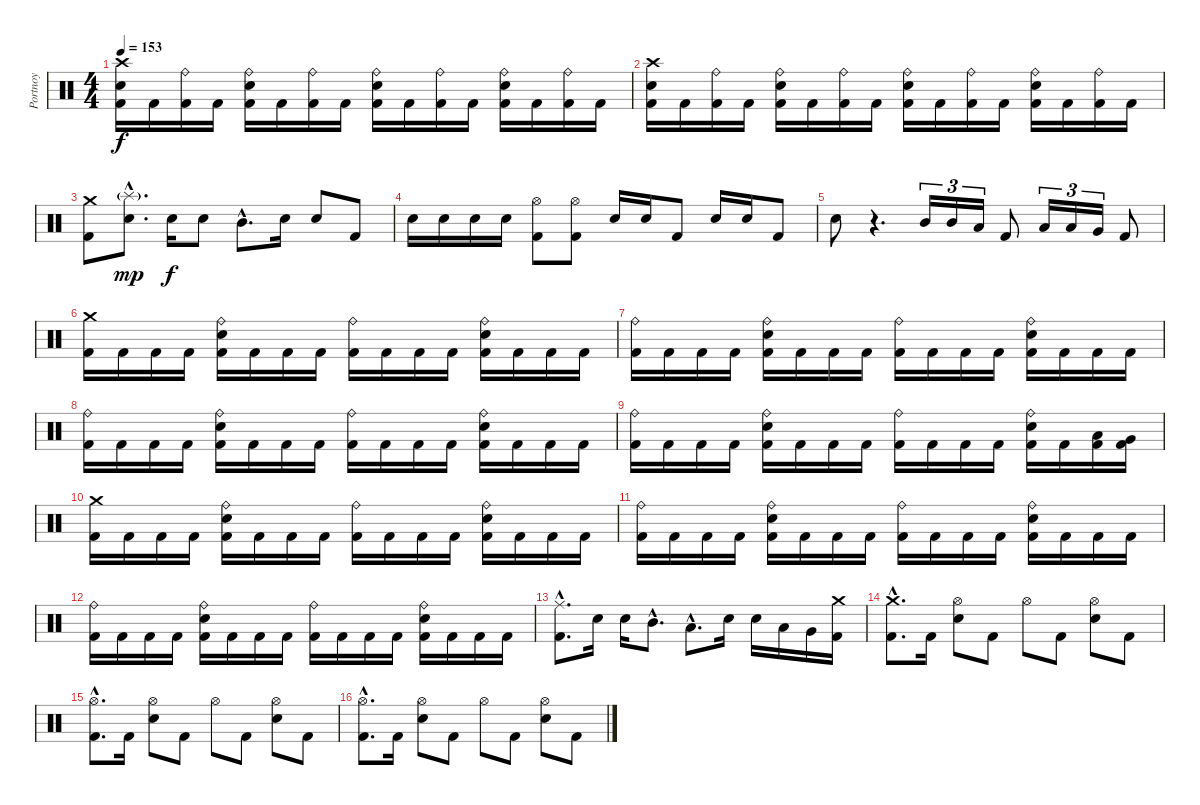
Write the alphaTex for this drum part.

\track ("Portnoy" "Portnoy") {instrument percussion}
\staff {score}
\articulation defaults
\ts (4 4)
\tempo 153
\clef neutral
\ks c
("Kick (hit) 2" "Electric Snare (hit)" "Crash high (hit)").16{dy f} "Kick (hit) 2".16 ("Kick (hit) 2" "Ride (bell)").16 "Kick (hit) 2".16 ("Kick (hit) 2" "Electric Snare (hit)" "Ride (bell)").16 "Kick (hit) 2".16 ("Kick (hit) 2" "Ride (bell)").16 "Kick (hit) 2".16 ("Kick (hit) 2" "Electric Snare (hit)" "Ride (bell)").16 "Kick (hit) 2".16 ("Kick (hit) 2" "Ride (bell)").16 "Kick (hit) 2".16 ("Kick (hit) 2" "Electric Snare (hit)" "Ride (bell)").16 "Kick (hit) 2".16 ("Kick (hit) 2" "Ride (bell)").16 "Kick (hit) 2".16 |
("Kick (hit) 2" "Electric Snare (hit)" "Crash high (hit)").16 "Kick (hit) 2".16 ("Kick (hit) 2" "Ride (bell)").16 "Kick (hit) 2".16 ("Kick (hit) 2" "Electric Snare (hit)" "Ride (bell)").16 "Kick (hit) 2".16 ("Kick (hit) 2" "Ride (bell)").16 "Kick (hit) 2".16 ("Kick (hit) 2" "Electric Snare (hit)" "Ride (bell)").16 "Kick (hit) 2".16 ("Kick (hit) 2" "Ride (bell)").16 "Kick (hit) 2".16 ("Kick (hit) 2" "Electric Snare (hit)" "Ride (bell)").16 "Kick (hit) 2".16 ("Kick (hit) 2" "Ride (bell)").16 "Kick (hit) 2".16 |
("Kick (hit) 2" "Crash medium (hit)").8 ("Electric Snare (hit)"{hac} "Splash (hit)"{g hac}).8{d dy mp} "Electric Snare (hit)".16{dy f} "Electric Snare (hit)".8 "Mid Tom (hit)"{hac}.8{d} "Electric Snare (hit)".16 "Electric Snare (hit)".8 "Kick (hit) 2".8 |
"Electric Snare (hit)".16 "Electric Snare (hit)".16 "Electric Snare (hit)".16 "Electric Snare (hit)".16 ("Kick (hit) 2" "Hi-Hat (open)").8 ("Kick (hit) 2" "Hi-Hat (open)").8 "Electric Snare (hit)".16 "Electric Snare (hit)".16 "Kick (hit) 2".8 "Electric Snare (hit)".16 "Electric Snare (hit)".16 "Kick (hit) 2".8 |
"Electric Snare (hit)".8 r.4{d} "Mid Tom (hit)".16{tu (3 2)} "Mid Tom (hit)".16{tu (3 2)} "Low Tom (hit)".16{tu (3 2)} "Kick (hit) 2".8 "Low Tom (hit)".16{tu (3 2)} "Low Tom (hit)".16{tu (3 2)} "Very Low Tom (hit)".16{tu (3 2)} "Kick (hit) 2".8 |
("Kick (hit) 2" "Crash medium (hit)").16 "Kick (hit) 2".16 "Kick (hit) 2".16 "Kick (hit) 2".16 ("Kick (hit) 2" "Electric Snare (hit)" "Ride (bell)").16 "Kick (hit) 2".16 "Kick (hit) 2".16 "Kick (hit) 2".16 ("Kick (hit) 2" "Ride (bell)").16 "Kick (hit) 2".16 "Kick (hit) 2".16 "Kick (hit) 2".16 ("Kick (hit) 2" "Electric Snare (hit)" "Ride (bell)").16 "Kick (hit) 2".16 "Kick (hit) 2".16 "Kick (hit) 2".16 |
("Kick (hit) 2" "Ride (bell)").16 "Kick (hit) 2".16 "Kick (hit) 2".16 "Kick (hit) 2".16 ("Kick (hit) 2" "Electric Snare (hit)" "Ride (bell)").16 "Kick (hit) 2".16 "Kick (hit) 2".16 "Kick (hit) 2".16 ("Kick (hit) 2" "Ride (bell)").16 "Kick (hit) 2".16 "Kick (hit) 2".16 "Kick (hit) 2".16 ("Kick (hit) 2" "Electric Snare (hit)" "Ride (bell)").16 "Kick (hit) 2".16 "Kick (hit) 2".16 "Kick (hit) 2".16 |
("Kick (hit) 2" "Ride (bell)").16 "Kick (hit) 2".16 "Kick (hit) 2".16 "Kick (hit) 2".16 ("Kick (hit) 2" "Electric Snare (hit)" "Ride (bell)").16 "Kick (hit) 2".16 "Kick (hit) 2".16 "Kick (hit) 2".16 ("Kick (hit) 2" "Ride (bell)").16 "Kick (hit) 2".16 "Kick (hit) 2".16 "Kick (hit) 2".16 ("Kick (hit) 2" "Electric Snare (hit)" "Ride (bell)").16 "Kick (hit) 2".16 "Kick (hit) 2".16 "Kick (hit) 2".16 |
("Kick (hit) 2" "Ride (bell)").16 "Kick (hit) 2".16 "Kick (hit) 2".16 "Kick (hit) 2".16 ("Kick (hit) 2" "Electric Snare (hit)" "Ride (bell)").16 "Kick (hit) 2".16 "Kick (hit) 2".16 "Kick (hit) 2".16 ("Kick (hit) 2" "Ride (bell)").16 "Kick (hit) 2".16 "Kick (hit) 2".16 "Kick (hit) 2".16 ("Kick (hit) 2" "Electric Snare (hit)" "Ride (bell)").16 "Kick (hit) 2".16 ("Kick (hit) 2" "Low Tom (hit)").16 ("Kick (hit) 2" "Very Low Tom (hit)").16 |
("Kick (hit) 2" "Crash medium (hit)").16 "Kick (hit) 2".16 "Kick (hit) 2".16 "Kick (hit) 2".16 ("Kick (hit) 2" "Electric Snare (hit)" "Ride (bell)").16 "Kick (hit) 2".16 "Kick (hit) 2".16 "Kick (hit) 2".16 ("Kick (hit) 2" "Ride (bell)").16 "Kick (hit) 2".16 "Kick (hit) 2".16 "Kick (hit) 2".16 ("Kick (hit) 2" "Electric Snare (hit)" "Ride (bell)").16 "Kick (hit) 2".16 "Kick (hit) 2".16 "Kick (hit) 2".16 |
("Kick (hit) 2" "Ride (bell)").16 "Kick (hit) 2".16 "Kick (hit) 2".16 "Kick (hit) 2".16 ("Kick (hit) 2" "Electric Snare (hit)" "Ride (bell)").16 "Kick (hit) 2".16 "Kick (hit) 2".16 "Kick (hit) 2".16 ("Kick (hit) 2" "Ride (bell)").16 "Kick (hit) 2".16 "Kick (hit) 2".16 "Kick (hit) 2".16 ("Kick (hit) 2" "Electric Snare (hit)" "Ride (bell)").16 "Kick (hit) 2".16 "Kick (hit) 2".16 "Kick (hit) 2".16 |
("Kick (hit) 2" "Ride (bell)").16 "Kick (hit) 2".16 "Kick (hit) 2".16 "Kick (hit) 2".16 ("Kick (hit) 2" "Electric Snare (hit)" "Ride (bell)").16 "Kick (hit) 2".16 "Kick (hit) 2".16 "Kick (hit) 2".16 ("Kick (hit) 2" "Ride (bell)").16 "Kick (hit) 2".16 "Kick (hit) 2".16 "Kick (hit) 2".16 ("Kick (hit) 2" "Electric Snare (hit)" "Ride (bell)").16 "Kick (hit) 2".16 "Kick (hit) 2".16 "Kick (hit) 2".16 |
("Kick (hit) 2"{hac} "Ride (middle)"{hac}).8{d} "Electric Snare (hit)".16 "Electric Snare (hit)".16 "Mid Tom (hit)"{hac}.8{d} "Low Tom (hit)"{hac}.8{d} "Electric Snare (hit)".16 "Electric Snare (hit)".16 "Low Tom (hit)".16 "Very Low Tom (hit)".16 ("Kick (hit) 2" "Crash medium (hit)").16 |
("Kick (hit) 2"{hac} "Crash medium (hit)"{hac}).8{d} "Kick (hit) 2".16 ("Electric Snare (hit)" "Hi-Hat (open)").8 "Kick (hit) 2".8 "Hi-Hat (open)".8 "Kick (hit) 2".8 ("Electric Snare (hit)" "Hi-Hat (open)").8 "Kick (hit) 2".8 |
("Kick (hit) 2"{hac} "Hi-Hat (open)"{hac}).8{d} "Kick (hit) 2".16 ("Electric Snare (hit)" "Hi-Hat (open)").8 "Kick (hit) 2".8 "Hi-Hat (open)".8 "Kick (hit) 2".8 ("Electric Snare (hit)" "Hi-Hat (open)").8 "Kick (hit) 2".8 |
("Kick (hit) 2"{hac} "Hi-Hat (open)"{hac}).8{d} "Kick (hit) 2".16 ("Electric Snare (hit)" "Hi-Hat (open)").8 "Kick (hit) 2".8 "Hi-Hat (open)".8 "Kick (hit) 2".8 ("Electric Snare (hit)" "Hi-Hat (open)").8 "Kick (hit) 2".8
